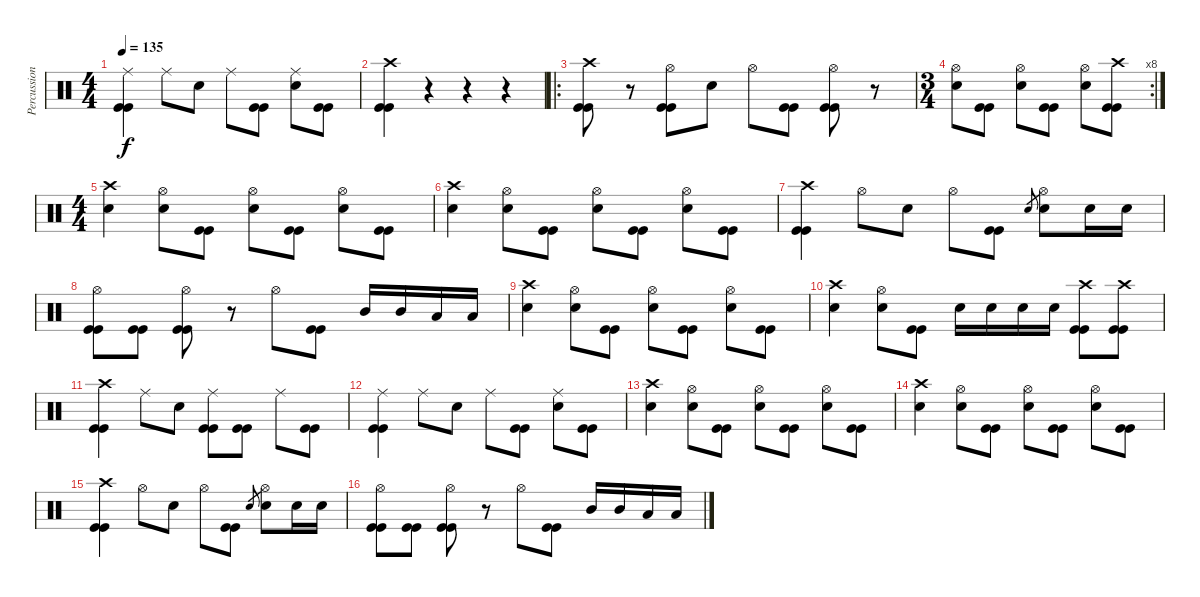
\track ("Percussion" "Percussion") {instrument percussion}
\staff {score}
\articulation defaults
\ts (4 4)
\tempo 135
\clef neutral
\ks c
("Ride (middle)" "Kick (hit)" "Kick (hit)").4{dy f} "Ride (middle)".8 "Electric Snare (hit)".8 "Ride (middle)".8 ("Kick (hit)" "Kick (hit)").8 ("Ride (middle)" "Electric Snare (hit)").8 ("Kick (hit)" "Kick (hit)").8 |
("Crash high (hit)" "Kick (hit)" "Kick (hit)").4 r.4 r.4 r.4 |
\ro
("Crash high (hit)" "Kick (hit)" "Kick (hit)").8 r.8 ("Hi-Hat (open)" "Kick (hit)" "Kick (hit)").8 "Electric Snare (hit)".8 "Hi-Hat (open)".8 ("Kick (hit)" "Kick (hit)").8 ("Hi-Hat (open)" "Kick (hit)" "Kick (hit)").8 r.8 |
\rc 8
\ts (3 4)
("Hi-Hat (open)" "Electric Snare (hit)").8 ("Kick (hit)" "Kick (hit)").8 ("Hi-Hat (open)" "Electric Snare (hit)").8 ("Kick (hit)" "Kick (hit)").8 ("Hi-Hat (open)" "Electric Snare (hit)").8 ("Crash high (hit)" "Kick (hit)" "Kick (hit)").8 |
\ts (4 4)
("Crash high (hit)" "Electric Snare (hit)").4 ("Hi-Hat (open)" "Electric Snare (hit)").8 ("Kick (hit)" "Kick (hit)").8 ("Hi-Hat (open)" "Electric Snare (hit)").8 ("Kick (hit)" "Kick (hit)").8 ("Hi-Hat (open)" "Electric Snare (hit)").8 ("Kick (hit)" "Kick (hit)").8 |
("Crash high (hit)" "Electric Snare (hit)").4 ("Hi-Hat (open)" "Electric Snare (hit)").8 ("Kick (hit)" "Kick (hit)").8 ("Hi-Hat (open)" "Electric Snare (hit)").8 ("Kick (hit)" "Kick (hit)").8 ("Hi-Hat (open)" "Electric Snare (hit)").8 ("Kick (hit)" "Kick (hit)").8 |
("Crash high (hit)" "Kick (hit)" "Kick (hit)").4 "Hi-Hat (open)".8 "Electric Snare (hit)".8 "Hi-Hat (open)".8 ("Kick (hit)" "Kick (hit)").8 "Electric Snare (hit)".8{gr} ("Hi-Hat (open)" "Electric Snare (hit)").8 "Electric Snare (hit)".16 "Electric Snare (hit)".16 |
("Hi-Hat (open)" "Kick (hit)" "Kick (hit)").8 ("Kick (hit)" "Kick (hit)").8 ("Hi-Hat (open)" "Kick (hit)" "Kick (hit)").8 r.8 "Hi-Hat (open)".8 ("Kick (hit)" "Kick (hit)").8 "Mid Tom (hit)".16 "Mid Tom (hit)".16 "Low Floor Tom (hit)".16 "Low Floor Tom (hit)".16 |
("Crash high (hit)" "Electric Snare (hit)").4 ("Hi-Hat (open)" "Electric Snare (hit)").8 ("Kick (hit)" "Kick (hit)").8 ("Hi-Hat (open)" "Electric Snare (hit)").8 ("Kick (hit)" "Kick (hit)").8 ("Hi-Hat (open)" "Electric Snare (hit)").8 ("Kick (hit)" "Kick (hit)").8 |
("Crash high (hit)" "Electric Snare (hit)").4 ("Hi-Hat (open)" "Electric Snare (hit)").8 ("Kick (hit)" "Kick (hit)").8 "Electric Snare (hit)".16 "Electric Snare (hit)".16 "Electric Snare (hit)".16 "Electric Snare (hit)".16 ("Crash high (hit)" "Kick (hit)" "Kick (hit)").8 ("Crash high (hit)" "Kick (hit)" "Kick (hit)").8 |
("Crash high (hit)" "Kick (hit)" "Kick (hit)").4 "Ride (middle)".8 "Electric Snare (hit)".8 ("Ride (middle)" "Kick (hit)" "Kick (hit)").8 ("Kick (hit)" "Kick (hit)").8 "Ride (middle)".8 ("Kick (hit)" "Kick (hit)").8 |
("Ride (middle)" "Kick (hit)" "Kick (hit)").4 "Ride (middle)".8 "Electric Snare (hit)".8 "Ride (middle)".8 ("Kick (hit)" "Kick (hit)").8 ("Ride (middle)" "Electric Snare (hit)").8 ("Kick (hit)" "Kick (hit)").8 |
("Crash high (hit)" "Electric Snare (hit)").4 ("Hi-Hat (open)" "Electric Snare (hit)").8 ("Kick (hit)" "Kick (hit)").8 ("Hi-Hat (open)" "Electric Snare (hit)").8 ("Kick (hit)" "Kick (hit)").8 ("Hi-Hat (open)" "Electric Snare (hit)").8 ("Kick (hit)" "Kick (hit)").8 |
("Crash high (hit)" "Electric Snare (hit)").4 ("Hi-Hat (open)" "Electric Snare (hit)").8 ("Kick (hit)" "Kick (hit)").8 ("Hi-Hat (open)" "Electric Snare (hit)").8 ("Kick (hit)" "Kick (hit)").8 ("Hi-Hat (open)" "Electric Snare (hit)").8 ("Kick (hit)" "Kick (hit)").8 |
("Crash high (hit)" "Kick (hit)" "Kick (hit)").4 "Hi-Hat (open)".8 "Electric Snare (hit)".8 "Hi-Hat (open)".8 ("Kick (hit)" "Kick (hit)").8 "Electric Snare (hit)".8{gr} ("Hi-Hat (open)" "Electric Snare (hit)").8 "Electric Snare (hit)".16 "Electric Snare (hit)".16 |
("Hi-Hat (open)" "Kick (hit)" "Kick (hit)").8 ("Kick (hit)" "Kick (hit)").8 ("Hi-Hat (open)" "Kick (hit)" "Kick (hit)").8 r.8 "Hi-Hat (open)".8 ("Kick (hit)" "Kick (hit)").8 "Mid Tom (hit)".16 "Mid Tom (hit)".16 "Low Floor Tom (hit)".16 "Low Floor Tom (hit)".16
